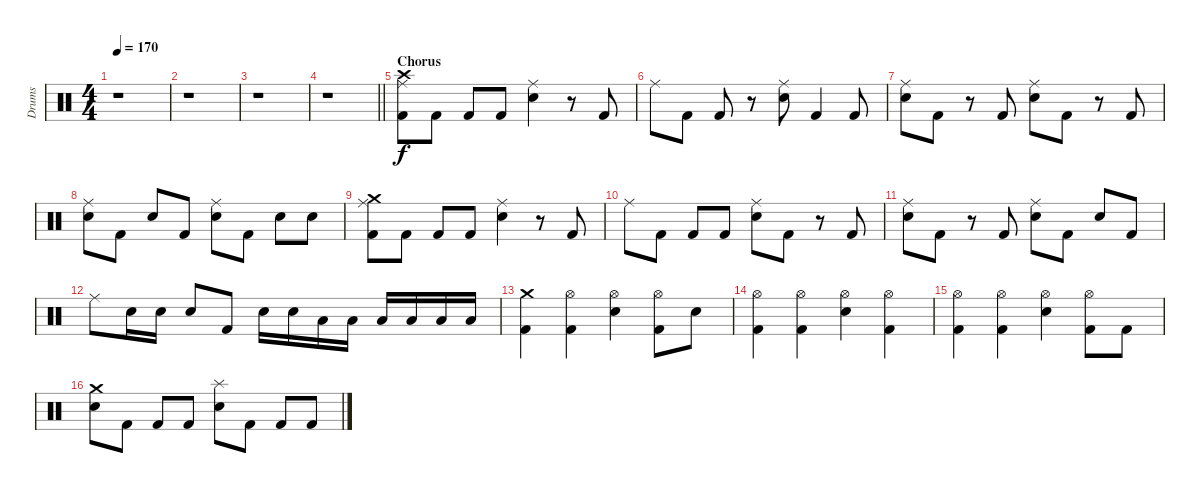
\track ("Drums" "Drums") {instrument percussion}
\staff {score}
\articulation defaults
\ts (4 4)
\tempo 170
\clef neutral
\ks c
r.1{dy f} |
r.1 |
r.1 |
\barLineRight lightlight
r.1 |
\section ("" "Chorus")
("Ride (middle)" "Crash high (hit)" "Kick (hit) 2").8{volume 13} "Kick (hit) 2".8 "Kick (hit) 2".8 "Kick (hit) 2".8 ("Ride (middle)" "Snare (hit) 2").4 r.8 "Kick (hit) 2".8 |
"Ride (middle)".8 "Kick (hit) 2".8 "Kick (hit) 2".8 r.8 ("Ride (middle)" "Snare (hit) 2").8 "Kick (hit) 2".4 "Kick (hit) 2".8 |
("Ride (middle)" "Snare (hit) 2").8 "Kick (hit) 2".8 r.8 "Kick (hit) 2".8 ("Ride (middle)" "Snare (hit) 2").8 "Kick (hit) 2".8 r.8 "Kick (hit) 2".8 |
("Ride (middle)" "Snare (hit) 2").8 "Kick (hit) 2".8 "Snare (hit) 2".8 "Kick (hit) 2".8 ("Ride (middle)" "Snare (hit) 2").8 "Kick (hit) 2".8 "Snare (hit) 2".8 "Snare (hit) 2".8 |
("Ride (middle)" "Crash medium (hit)" "Kick (hit) 2").8 "Kick (hit) 2".8 "Kick (hit) 2".8 "Kick (hit) 2".8 ("Ride (middle)" "Snare (hit) 2").4 r.8 "Kick (hit) 2".8 |
"Ride (middle)".8 "Kick (hit) 2".8 "Kick (hit) 2".8 "Kick (hit) 2".8 ("Ride (middle)" "Snare (hit) 2").8 "Kick (hit) 2".8 r.8 "Kick (hit) 2".8 |
("Ride (middle)" "Snare (hit) 2").8 "Kick (hit) 2".8 r.8 "Kick (hit) 2".8 ("Ride (middle)" "Snare (hit) 2").8 "Kick (hit) 2".8 "Snare (hit) 2".8 "Kick (hit) 2".8 |
"Ride (middle)".8 "Snare (hit) 2".16 "Snare (hit) 2".16 "Snare (hit) 2".8 "Kick (hit) 2".8 "Snare (hit) 2".16 "Snare (hit) 2".16 "Low Tom (hit)".16 "Low Tom (hit)".16 "Low Tom (hit)".16 "Low Tom (hit)".16 "Low Floor Tom (hit)".16 "Low Floor Tom (hit)".16 |
("Crash medium (hit)" "Kick (hit) 2").4 ("Hi-Hat (open)" "Kick (hit) 2").4 ("Hi-Hat (open)" "Snare (hit) 2").4 ("Hi-Hat (open)" "Kick (hit) 2").8 "Snare (hit) 2".8 |
("Hi-Hat (open)" "Kick (hit) 2").4 ("Hi-Hat (open)" "Kick (hit) 2").4 ("Hi-Hat (open)" "Snare (hit) 2").4 ("Hi-Hat (open)" "Kick (hit) 2").4 |
("Hi-Hat (open)" "Kick (hit) 2").4 ("Hi-Hat (open)" "Kick (hit) 2").4 ("Hi-Hat (open)" "Snare (hit) 2").4 ("Hi-Hat (open)" "Kick (hit) 2").8 "Kick (hit) 2".8 |
("Crash medium (hit)" "Snare (hit) 2").8 "Kick (hit) 2".8 "Kick (hit) 2".8 "Kick (hit) 2".8 ("Splash (hit)" "Snare (hit) 2").8 "Kick (hit) 2".8 "Kick (hit) 2".8 "Kick (hit) 2".8
